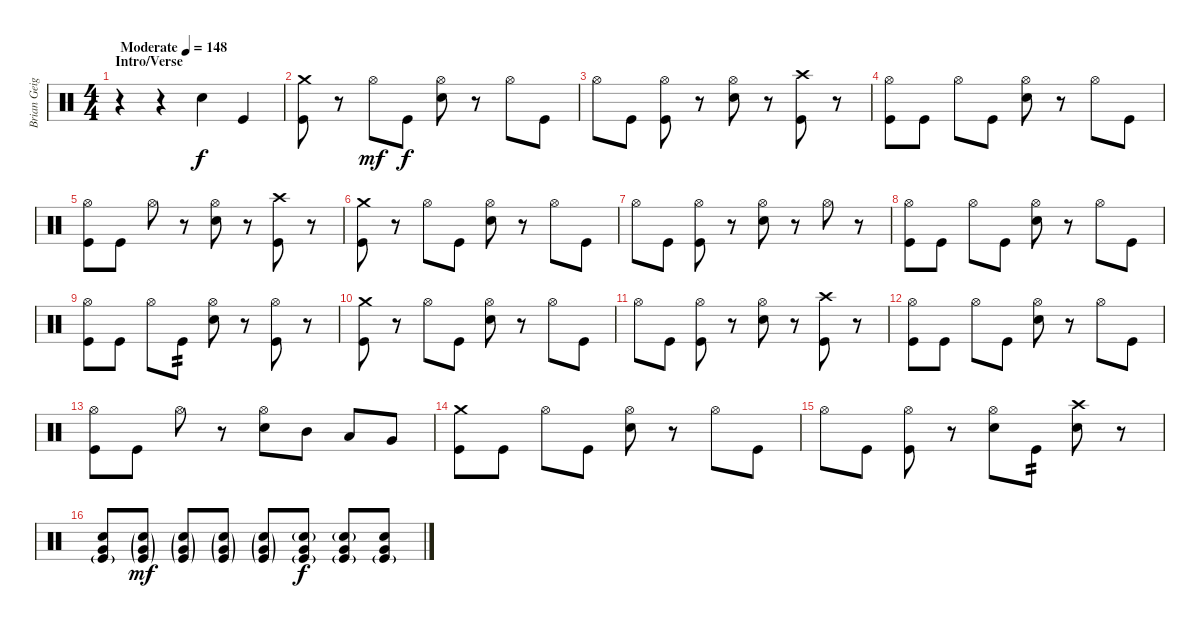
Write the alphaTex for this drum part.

\track ("Brian Geiger" "Brian Geig") {instrument percussion}
\staff {score}
\articulation defaults
\ts (4 4)
\section ("" "Intro/Verse")
\tempo (148 "Moderate")
\clef neutral
\ks c
r.4{dy f} r.4 "Snare (hit) 2".4 "Kick (hit)".4 |
("Crash medium (hit)" "Kick (hit)").8 r.8 "Hi-Hat (open)".8{dy mf} "Kick (hit)".8{dy f} ("Hi-Hat (open)" "Snare (hit) 2").8 r.8 "Hi-Hat (open)".8 "Kick (hit)".8 |
"Hi-Hat (open)".8 "Kick (hit)".8 ("Hi-Hat (open)" "Kick (hit)").8 r.8 ("Hi-Hat (open)" "Snare (hit) 2").8 r.8 ("Crash high (hit)" "Kick (hit)").8 r.8 |
("Hi-Hat (open)" "Kick (hit)").8 "Kick (hit)".8 "Hi-Hat (open)".8 "Kick (hit)".8 ("Hi-Hat (open)" "Snare (hit) 2").8 r.8 "Hi-Hat (open)".8 "Kick (hit)".8 |
("Hi-Hat (open)" "Kick (hit)").8 "Kick (hit)".8 "Hi-Hat (open)".8 r.8 ("Hi-Hat (open)" "Snare (hit) 2").8 r.8 ("Crash high (hit)" "Kick (hit)").8 r.8 |
("Crash medium (hit)" "Kick (hit)").8 r.8 "Hi-Hat (open)".8 "Kick (hit)".8 ("Hi-Hat (open)" "Snare (hit) 2").8 r.8 "Hi-Hat (open)".8 "Kick (hit)".8 |
"Hi-Hat (open)".8 "Kick (hit)".8 ("Hi-Hat (open)" "Kick (hit)").8 r.8 ("Hi-Hat (open)" "Snare (hit) 2").8 r.8 "Hi-Hat (open)".8 r.8 |
("Hi-Hat (open)" "Kick (hit)").8 "Kick (hit)".8 "Hi-Hat (open)".8 "Kick (hit)".8 ("Hi-Hat (open)" "Snare (hit) 2").8 r.8 "Hi-Hat (open)".8 "Kick (hit)".8 |
("Hi-Hat (open)" "Kick (hit)").8 "Kick (hit)".8 "Hi-Hat (open)".8 "Kick (hit)".8{tp 2} ("Hi-Hat (open)" "Snare (hit) 2").8 r.8 ("Hi-Hat (open)" "Kick (hit)").8 r.8 |
("Crash medium (hit)" "Kick (hit)").8 r.8 "Hi-Hat (open)".8 "Kick (hit)".8 ("Hi-Hat (open)" "Snare (hit) 2").8 r.8 "Hi-Hat (open)".8 "Kick (hit)".8 |
"Hi-Hat (open)".8 "Kick (hit)".8 ("Hi-Hat (open)" "Kick (hit)").8 r.8 ("Hi-Hat (open)" "Snare (hit) 2").8 r.8 ("Crash high (hit)" "Kick (hit)").8 r.8 |
("Hi-Hat (open)" "Kick (hit)").8 "Kick (hit)".8 "Hi-Hat (open)".8 "Kick (hit)".8 ("Hi-Hat (open)" "Snare (hit) 2").8 r.8 "Hi-Hat (open)".8 "Kick (hit)".8 |
("Hi-Hat (open)" "Kick (hit)").8 "Kick (hit)".8 "Hi-Hat (open)".8 r.8 ("Hi-Hat (open)" "Snare (hit) 2").8 "Mid Tom (hit)".8 "Low Tom (hit)".8 "Very Low Tom (hit)".8 |
("Crash medium (hit)" "Kick (hit)").8 "Kick (hit)".8 "Hi-Hat (open)".8 "Kick (hit)".8 ("Hi-Hat (open)" "Snare (hit) 2").8 r.8 "Hi-Hat (open)".8 "Kick (hit)".8 |
"Hi-Hat (open)".8 "Kick (hit)".8 ("Hi-Hat (open)" "Kick (hit)").8 r.8 ("Hi-Hat (open)" "Snare (hit) 2").8 "Kick (hit)".8{tp 2} ("Crash high (hit)" "Snare (hit) 2").8 r.8 |
("Snare (hit) 2" "Very Low Tom (hit)" "Kick (hit)"{g}).8 ("Snare (hit) 2"{g} "Very Low Tom (hit)"{g} "Kick (hit)"{g}).8{dy mf} ("Snare (hit) 2"{g} "Very Low Tom (hit)"{g} "Kick (hit)"{g}).8 ("Snare (hit) 2"{g} "Very Low Tom (hit)"{g} "Kick (hit)"{g}).8 ("Snare (hit) 2"{g} "Very Low Tom (hit)"{g} "Kick (hit)"{g}).8 ("Snare (hit) 2"{g} "Very Low Tom (hit)" "Kick (hit)"{g}).8{dy f} ("Snare (hit) 2"{g} "Very Low Tom (hit)" "Kick (hit)"{g}).8 ("Snare (hit) 2" "Very Low Tom (hit)" "Kick (hit)"{g}).8
